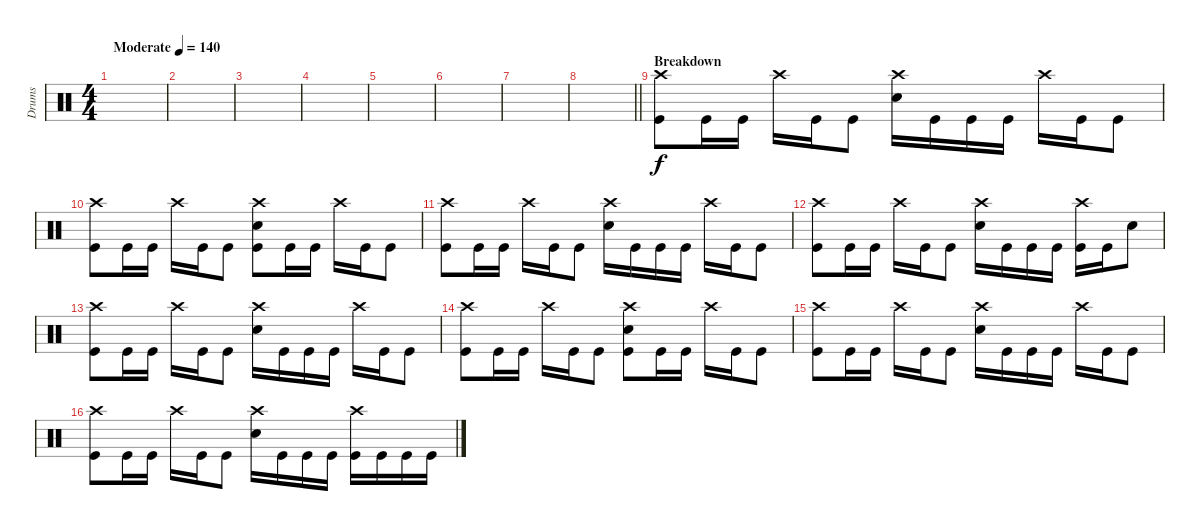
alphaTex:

\track ("Drums" "Drums") {instrument percussion}
\staff {score}
\articulation defaults
\ts (4 4)
\tempo (140 "Moderate")
\clef neutral
\ks c
|
|
|
|
|
|
|
\barLineRight lightlight
|
\section ("" "Breakdown")
("Crash high (hit)" "Kick (hit)").8 "Kick (hit)".16 "Kick (hit)".16 "Crash high (hit)".16 "Kick (hit)".16 "Kick (hit)".8 ("Crash high (hit)" "Snare (hit) 2").16 "Kick (hit)".16 "Kick (hit)".16 "Kick (hit)".16 "Crash high (hit)".16 "Kick (hit)".16 "Kick (hit)".8 |
("Crash high (hit)" "Kick (hit)").8 "Kick (hit)".16 "Kick (hit)".16 "Crash high (hit)".16 "Kick (hit)".16 "Kick (hit)".8 ("Snare (hit) 2" "Crash high (hit)" "Kick (hit)").8 "Kick (hit)".16 "Kick (hit)".16 "Crash high (hit)".16 "Kick (hit)".16 "Kick (hit)".8 |
("Crash high (hit)" "Kick (hit)").8 "Kick (hit)".16 "Kick (hit)".16 "Crash high (hit)".16 "Kick (hit)".16 "Kick (hit)".8 ("Crash high (hit)" "Snare (hit) 2").16 "Kick (hit)".16 "Kick (hit)".16 "Kick (hit)".16 "Crash high (hit)".16 "Kick (hit)".16 "Kick (hit)".8 |
("Crash high (hit)" "Kick (hit)").8 "Kick (hit)".16 "Kick (hit)".16 "Crash high (hit)".16 "Kick (hit)".16 "Kick (hit)".8 ("Crash high (hit)" "Snare (hit) 2").16 "Kick (hit)".16 "Kick (hit)".16 "Kick (hit)".16 ("Crash high (hit)" "Kick (hit)").16 "Kick (hit)".16 "Snare (hit) 2".8 |
("Crash high (hit)" "Kick (hit)").8 "Kick (hit)".16 "Kick (hit)".16 "Crash high (hit)".16 "Kick (hit)".16 "Kick (hit)".8 ("Crash high (hit)" "Snare (hit) 2").16 "Kick (hit)".16 "Kick (hit)".16 "Kick (hit)".16 "Crash high (hit)".16 "Kick (hit)".16 "Kick (hit)".8 |
("Crash high (hit)" "Kick (hit)").8 "Kick (hit)".16 "Kick (hit)".16 "Crash high (hit)".16 "Kick (hit)".16 "Kick (hit)".8 ("Snare (hit) 2" "Crash high (hit)" "Kick (hit)").8 "Kick (hit)".16 "Kick (hit)".16 "Crash high (hit)".16 "Kick (hit)".16 "Kick (hit)".8 |
("Crash high (hit)" "Kick (hit)").8 "Kick (hit)".16 "Kick (hit)".16 "Crash high (hit)".16 "Kick (hit)".16 "Kick (hit)".8 ("Crash high (hit)" "Snare (hit) 2").16 "Kick (hit)".16 "Kick (hit)".16 "Kick (hit)".16 "Crash high (hit)".16 "Kick (hit)".16 "Kick (hit)".8 |
("Crash high (hit)" "Kick (hit)").8 "Kick (hit)".16 "Kick (hit)".16 "Crash high (hit)".16 "Kick (hit)".16 "Kick (hit)".8 ("Crash high (hit)" "Snare (hit) 2").16 "Kick (hit)".16 "Kick (hit)".16 "Kick (hit)".16 ("Crash high (hit)" "Kick (hit)").16 "Kick (hit)".16 "Kick (hit)".16 "Kick (hit)".16
